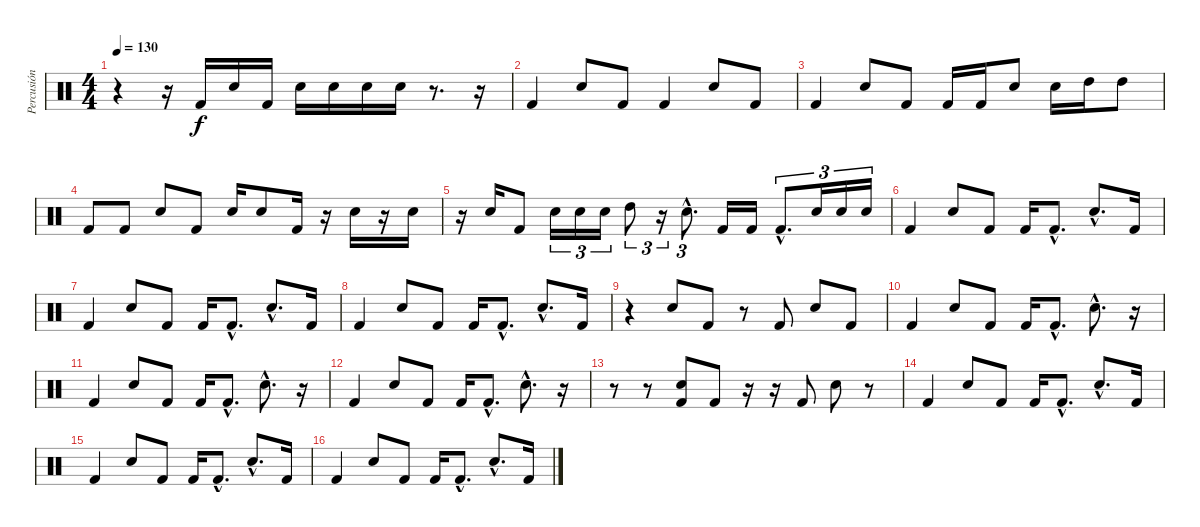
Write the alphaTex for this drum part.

\track ("Percusión" "Percusión") {instrument percussion}
\staff {score}
\articulation defaults
\ts (4 4)
\tempo 130
\clef neutral
\ks c
r.4{dy f} r.16 "Kick (hit) 2".16 "Electric Snare (hit)".16 "Kick (hit) 2".16 "Electric Snare (hit)".16 "Electric Snare (hit)".16 "Electric Snare (hit)".16 "Electric Snare (hit)".16 r.8{d} r.16 |
"Kick (hit) 2".4 "Electric Snare (hit)".8 "Kick (hit) 2".8 "Kick (hit) 2".4 "Electric Snare (hit)".8 "Kick (hit) 2".8 |
"Kick (hit) 2".4 "Electric Snare (hit)".8 "Kick (hit) 2".8 "Kick (hit) 2".16 "Kick (hit) 2".16 "Electric Snare (hit)".8 "Electric Snare (hit)".16 "High Tom (hit)".16 "High Tom (hit)".8 |
"Kick (hit) 2".8 "Kick (hit) 2".8 "Electric Snare (hit)".8 "Kick (hit) 2".8 "Electric Snare (hit)".16 "Electric Snare (hit)".8 "Kick (hit) 2".16 r.16 "Electric Snare (hit)".16 r.16 "Electric Snare (hit)".16 |
r.16 "Electric Snare (hit)".16 "Kick (hit) 2".8 "Electric Snare (hit)".16{tu (3 2)} "Electric Snare (hit)".16{tu (3 2)} "Electric Snare (hit)".16{tu (3 2)} "High Tom (hit)".8{tu (3 2)} r.16{tu (3 2)} "Electric Snare (hit)"{hac}.8{d tu (3 2)} "Kick (hit) 2".16 "Kick (hit) 2".16 "Kick (hit) 2"{hac}.8{d tu (3 2)} "Electric Snare (hit)".16{tu (3 2)} "Electric Snare (hit)".16{tu (3 2)} "Electric Snare (hit)".16{tu (3 2)} |
"Kick (hit) 2".4 "Electric Snare (hit)".8 "Kick (hit) 2".8 "Kick (hit) 2".16 "Kick (hit) 2"{hac}.8{d} "Electric Snare (hit)"{hac}.8{d} "Kick (hit) 2".16 |
"Kick (hit) 2".4 "Electric Snare (hit)".8 "Kick (hit) 2".8 "Kick (hit) 2".16 "Kick (hit) 2"{hac}.8{d} "Electric Snare (hit)"{hac}.8{d} "Kick (hit) 2".16 |
"Kick (hit) 2".4 "Electric Snare (hit)".8 "Kick (hit) 2".8 "Kick (hit) 2".16 "Kick (hit) 2"{hac}.8{d} "Electric Snare (hit)"{hac}.8{d} "Kick (hit) 2".16 |
r.4 "Electric Snare (hit)".8 "Kick (hit) 2".8 r.8 "Kick (hit) 2".8 "Electric Snare (hit)".8 "Kick (hit) 2".8 |
"Kick (hit) 2".4 "Electric Snare (hit)".8 "Kick (hit) 2".8 "Kick (hit) 2".16 "Kick (hit) 2"{hac}.8{d} "Electric Snare (hit)"{hac}.8{d} r.16 |
"Kick (hit) 2".4 "Electric Snare (hit)".8 "Kick (hit) 2".8 "Kick (hit) 2".16 "Kick (hit) 2"{hac}.8{d} "Electric Snare (hit)"{hac}.8{d} r.16 |
"Kick (hit) 2".4 "Electric Snare (hit)".8 "Kick (hit) 2".8 "Kick (hit) 2".16 "Kick (hit) 2"{hac}.8{d} "Electric Snare (hit)"{hac}.8{d} r.16 |
r.8 r.8 ("Electric Snare (hit)" "Kick (hit) 2").8 "Kick (hit) 2".8 r.16 r.16 "Kick (hit) 2".8 "Electric Snare (hit)".8 r.8 |
"Kick (hit) 2".4 "Electric Snare (hit)".8 "Kick (hit) 2".8 "Kick (hit) 2".16 "Kick (hit) 2"{hac}.8{d} "Electric Snare (hit)"{hac}.8{d} "Kick (hit) 2".16 |
"Kick (hit) 2".4 "Electric Snare (hit)".8 "Kick (hit) 2".8 "Kick (hit) 2".16 "Kick (hit) 2"{hac}.8{d} "Electric Snare (hit)"{hac}.8{d} "Kick (hit) 2".16 |
"Kick (hit) 2".4 "Electric Snare (hit)".8 "Kick (hit) 2".8 "Kick (hit) 2".16 "Kick (hit) 2"{hac}.8{d} "Electric Snare (hit)"{hac}.8{d} "Kick (hit) 2".16
